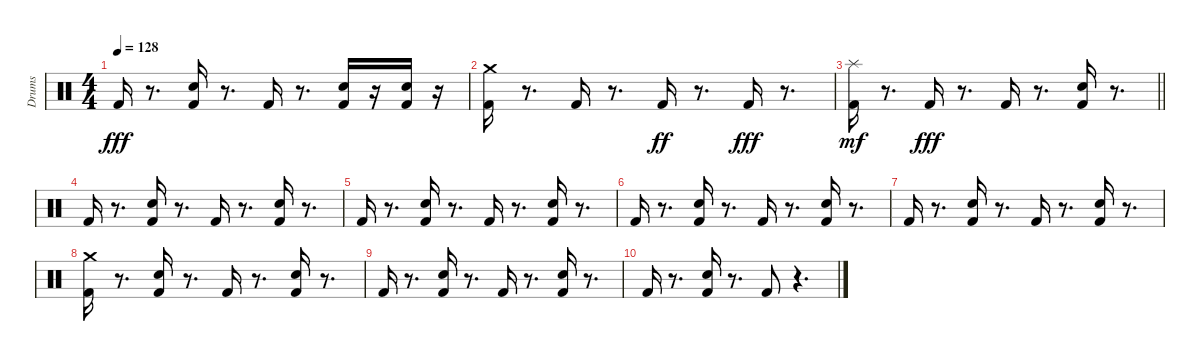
\track ("Drums" "Drums") {instrument percussion}
\staff {score}
\articulation defaults
\ts (4 4)
\tempo 128
\clef neutral
\ks c "Kick (hit) 2".16{dy fff}
r.8{d} ("Kick (hit) 2" "Electric Snare (hit)").16 r.8{d} "Kick (hit) 2".16 r.8{d} ("Kick (hit) 2" "Electric Snare (hit)").16 r.16 ("Electric Snare (hit)" "Kick (hit) 2").16 r.16 |
("Crash medium (hit)" "Kick (hit) 2").16 r.8{d} "Kick (hit) 2".16 r.8{d} "Kick (hit) 2".16{dy ff} r.8{d} "Kick (hit) 2".16{dy fff} r.8{d} |
\barLineRight lightlight
("Kick (hit) 2" "Splash (hit)").16{dy mf} r.8{d} "Kick (hit) 2".16{dy fff} r.8{d} "Kick (hit) 2".16 r.8{d} ("Kick (hit) 2" "Electric Snare (hit)").16 r.8{d} |
"Kick (hit) 2".16 r.8{d} ("Kick (hit) 2" "Electric Snare (hit)").16 r.8{d} "Kick (hit) 2".16 r.8{d} ("Kick (hit) 2" "Electric Snare (hit)").16 r.8{d} |
"Kick (hit) 2".16 r.8{d} ("Kick (hit) 2" "Electric Snare (hit)").16 r.8{d} "Kick (hit) 2".16 r.8{d} ("Kick (hit) 2" "Electric Snare (hit)").16 r.8{d} |
"Kick (hit) 2".16 r.8{d} ("Kick (hit) 2" "Electric Snare (hit)").16 r.8{d} "Kick (hit) 2".16 r.8{d} ("Kick (hit) 2" "Electric Snare (hit)").16 r.8{d} |
"Kick (hit) 2".16 r.8{d} ("Kick (hit) 2" "Electric Snare (hit)").16 r.8{d} "Kick (hit) 2".16 r.8{d} ("Kick (hit) 2" "Electric Snare (hit)").16 r.8{d} |
("Crash medium (hit)" "Kick (hit) 2").16 r.8{d} ("Kick (hit) 2" "Electric Snare (hit)").16 r.8{d} "Kick (hit) 2".16 r.8{d} ("Kick (hit) 2" "Electric Snare (hit)").16 r.8{d} |
"Kick (hit) 2".16 r.8{d} ("Kick (hit) 2" "Electric Snare (hit)").16 r.8{d} "Kick (hit) 2".16 r.8{d} ("Kick (hit) 2" "Electric Snare (hit)").16 r.8{d} |
"Kick (hit) 2".16 r.8{d} ("Kick (hit) 2" "Electric Snare (hit)").16 r.8{d} "Kick (hit) 2".8 r.4{d}
